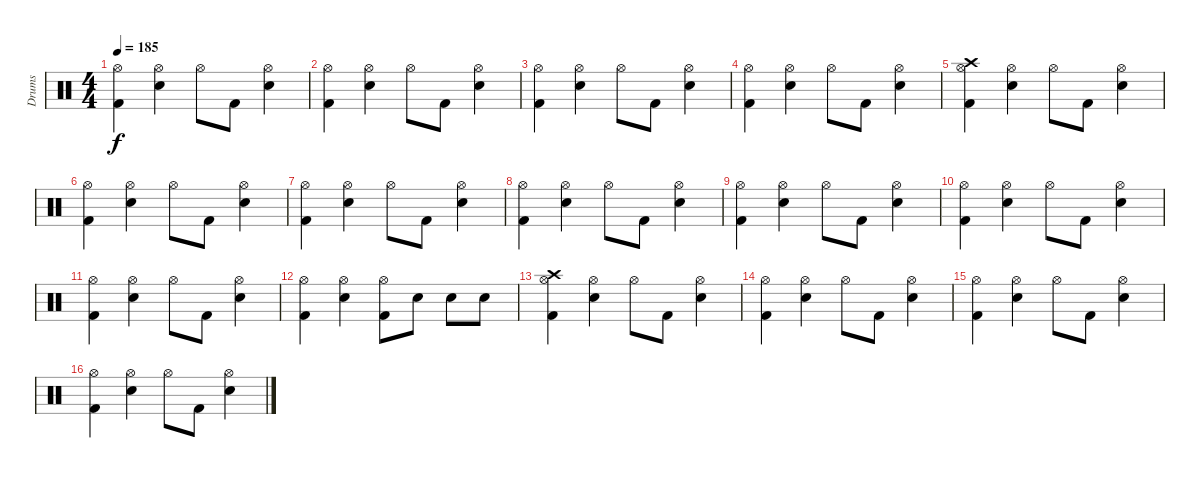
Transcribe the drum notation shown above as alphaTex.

\track ("Drums" "Drums") {instrument percussion}
\staff {score}
\articulation defaults
\ts (4 4)
\tempo 185
\clef neutral
\ks c
("Hi-Hat (open)" "Kick (hit) 2").4{dy f} ("Hi-Hat (open)" "Electric Snare (hit)").4 "Hi-Hat (open)".8 "Kick (hit) 2".8 ("Hi-Hat (open)" "Electric Snare (hit)").4 |
("Hi-Hat (open)" "Kick (hit) 2").4 ("Hi-Hat (open)" "Electric Snare (hit)").4 "Hi-Hat (open)".8 "Kick (hit) 2".8 ("Hi-Hat (open)" "Electric Snare (hit)").4 |
("Hi-Hat (open)" "Kick (hit) 2").4 ("Hi-Hat (open)" "Electric Snare (hit)").4 "Hi-Hat (open)".8 "Kick (hit) 2".8 ("Hi-Hat (open)" "Electric Snare (hit)").4 |
("Hi-Hat (open)" "Kick (hit) 2").4 ("Hi-Hat (open)" "Electric Snare (hit)").4 "Hi-Hat (open)".8 "Kick (hit) 2".8 ("Hi-Hat (open)" "Electric Snare (hit)").4 |
("Hi-Hat (open)" "Crash high (hit)" "Kick (hit) 2").4 ("Hi-Hat (open)" "Electric Snare (hit)").4 "Hi-Hat (open)".8 "Kick (hit) 2".8 ("Hi-Hat (open)" "Electric Snare (hit)").4 |
("Hi-Hat (open)" "Kick (hit) 2").4 ("Hi-Hat (open)" "Electric Snare (hit)").4 "Hi-Hat (open)".8 "Kick (hit) 2".8 ("Hi-Hat (open)" "Electric Snare (hit)").4 |
("Hi-Hat (open)" "Kick (hit) 2").4 ("Hi-Hat (open)" "Electric Snare (hit)").4 "Hi-Hat (open)".8 "Kick (hit) 2".8 ("Hi-Hat (open)" "Electric Snare (hit)").4 |
("Hi-Hat (open)" "Kick (hit) 2").4 ("Hi-Hat (open)" "Electric Snare (hit)").4 "Hi-Hat (open)".8 "Kick (hit) 2".8 ("Hi-Hat (open)" "Electric Snare (hit)").4 |
("Hi-Hat (open)" "Kick (hit) 2").4 ("Hi-Hat (open)" "Electric Snare (hit)").4 "Hi-Hat (open)".8 "Kick (hit) 2".8 ("Hi-Hat (open)" "Electric Snare (hit)").4 |
("Hi-Hat (open)" "Kick (hit) 2").4 ("Hi-Hat (open)" "Electric Snare (hit)").4 "Hi-Hat (open)".8 "Kick (hit) 2".8 ("Hi-Hat (open)" "Electric Snare (hit)").4 |
("Hi-Hat (open)" "Kick (hit) 2").4 ("Hi-Hat (open)" "Electric Snare (hit)").4 "Hi-Hat (open)".8 "Kick (hit) 2".8 ("Hi-Hat (open)" "Electric Snare (hit)").4 |
("Hi-Hat (open)" "Kick (hit) 2").4 ("Hi-Hat (open)" "Electric Snare (hit)").4 ("Hi-Hat (open)" "Kick (hit) 2").8 "Electric Snare (hit)".8 "Electric Snare (hit)".8 "Electric Snare (hit)".8 |
("Hi-Hat (open)" "Crash high (hit)" "Kick (hit) 2").4 ("Hi-Hat (open)" "Electric Snare (hit)").4 "Hi-Hat (open)".8 "Kick (hit) 2".8 ("Hi-Hat (open)" "Electric Snare (hit)").4 |
("Hi-Hat (open)" "Kick (hit) 2").4 ("Hi-Hat (open)" "Electric Snare (hit)").4 "Hi-Hat (open)".8 "Kick (hit) 2".8 ("Hi-Hat (open)" "Electric Snare (hit)").4 |
("Hi-Hat (open)" "Kick (hit) 2").4 ("Hi-Hat (open)" "Electric Snare (hit)").4 "Hi-Hat (open)".8 "Kick (hit) 2".8 ("Hi-Hat (open)" "Electric Snare (hit)").4 |
("Hi-Hat (open)" "Kick (hit) 2").4 ("Hi-Hat (open)" "Electric Snare (hit)").4 "Hi-Hat (open)".8 "Kick (hit) 2".8 ("Hi-Hat (open)" "Electric Snare (hit)").4
